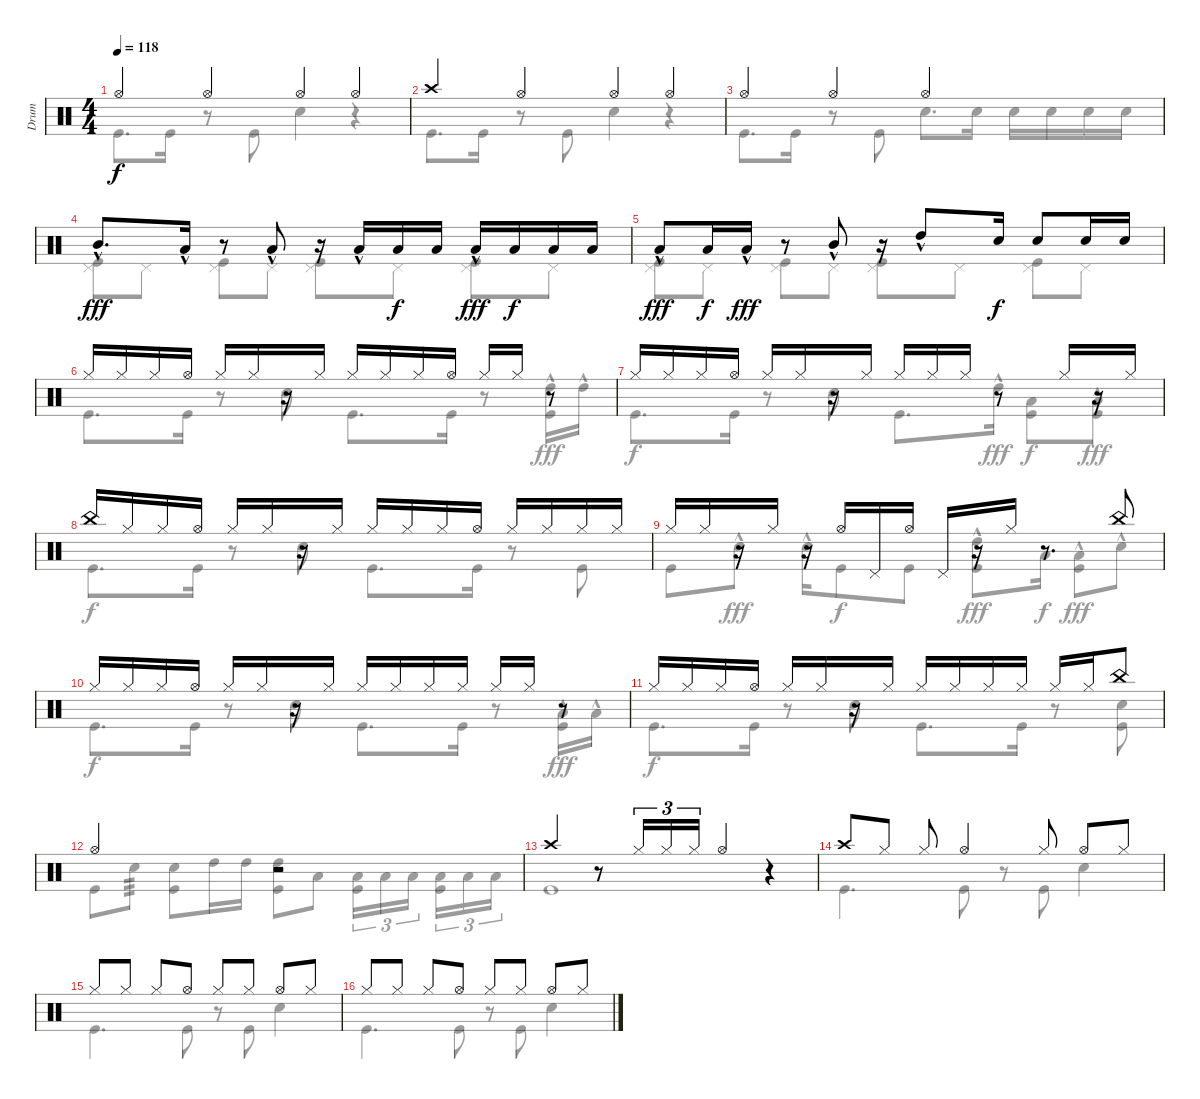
\track ("Drum" "Drum") {instrument percussion}
\staff {score}
\articulation defaults
\voice
\ts (4 4)
\tempo 118
\clef neutral
\ks c "Hi-Hat (open)".4{dy f} "Hi-Hat (open)".4 "Hi-Hat (open)".4 "Hi-Hat (open)".4
|
"Crash high (hit)".4 "Hi-Hat (open)".4 "Hi-Hat (open)".4 "Hi-Hat (open)".4 |
"Hi-Hat (open)".4 "Hi-Hat (open)".4 "Hi-Hat (open)".2 |
"Mid Tom (hit)"{hac}.8{d dy fff} "Low Tom (hit)"{hac}.16 r.8 "Low Floor Tom (hit)"{hac}.8 r.16 "Low Floor Tom (hit)"{hac}.16 "Low Floor Tom (hit)".16{dy f} "Low Floor Tom (hit)".16 "Low Floor Tom (hit)"{hac}.16{dy fff} "Low Floor Tom (hit)".16{dy f} "Low Floor Tom (hit)".16 "Low Floor Tom (hit)".16 |
"Low Floor Tom (hit)"{hac}.8{dy fff} "Low Floor Tom (hit)".16{dy f} "Low Tom (hit)"{hac}.16{dy fff} r.8 "Mid Tom (hit)"{hac}.8 r.16 "High Tom (hit)"{hac}.8 "Snare (hit) 2".16{dy f} "Snare (hit) 2".8 "Snare (hit) 2".16 "Snare (hit) 2".16 |
"Hi-Hat (closed)".16 "Hi-Hat (closed)".16 "Hi-Hat (closed)".16 "Hi-Hat (open)".16 "Hi-Hat (closed)".16 "Hi-Hat (closed)".16 r.16 "Hi-Hat (closed)".16 "Hi-Hat (closed)".16 "Hi-Hat (closed)".16 "Hi-Hat (closed)".16 "Hi-Hat (open)".16 "Hi-Hat (closed)".16 "Hi-Hat (closed)".16 r.8 |
"Hi-Hat (closed)".16 "Hi-Hat (closed)".16 "Hi-Hat (closed)".16 "Hi-Hat (open)".16 "Hi-Hat (closed)".16 "Hi-Hat (closed)".16 r.16 "Hi-Hat (closed)".16 "Hi-Hat (closed)".16 "Hi-Hat (closed)".16 "Hi-Hat (closed)".16 r.8 "Hi-Hat (closed)".16 r.16 "Hi-Hat (closed)".16 |
"China (hit)".16 "Hi-Hat (closed)".16 "Hi-Hat (closed)".16 "Hi-Hat (open)".16 "Hi-Hat (closed)".16 "Hi-Hat (closed)".16 r.16 "Hi-Hat (closed)".16 "Hi-Hat (closed)".16 "Hi-Hat (closed)".16 "Hi-Hat (closed)".16 "Hi-Hat (open)".16 "Hi-Hat (closed)".16 "Hi-Hat (closed)".16 "Hi-Hat (closed)".16 "Hi-Hat (closed)".16 |
"Hi-Hat (closed)".16 "Hi-Hat (closed)".16 r.16 "Hi-Hat (closed)".16 r.16 "Hi-Hat (open)".16 "Pedal Hi-Hat (hit)".16 "Hi-Hat (open)".16 "Pedal Hi-Hat (hit)".16 r.16 "Hi-Hat (closed)".16 r.8{d} "China (hit)".8 |
"Hi-Hat (closed)".16 "Hi-Hat (closed)".16 "Hi-Hat (closed)".16 "Hi-Hat (open)".16 "Hi-Hat (closed)".16 "Hi-Hat (closed)".16 r.16 "Hi-Hat (closed)".16 "Hi-Hat (closed)".16 "Hi-Hat (closed)".16 "Hi-Hat (closed)".16 "Hi-Hat (closed)".16 "Hi-Hat (closed)".16 "Hi-Hat (closed)".16 r.8 |
"Hi-Hat (closed)".16 "Hi-Hat (closed)".16 "Hi-Hat (closed)".16 "Hi-Hat (open)".16 "Hi-Hat (closed)".16 "Hi-Hat (closed)".16 r.16 "Hi-Hat (closed)".16 "Hi-Hat (closed)".16 "Hi-Hat (closed)".16 "Hi-Hat (closed)".16 "Hi-Hat (closed)".16 "Hi-Hat (closed)".16 "Hi-Hat (closed)".16 "China (hit)".8 |
"Hi-Hat (open)".2 r.2 |
"Crash high (hit)".4 r.8 "Hi-Hat (closed)".16{tu (3 2)} "Hi-Hat (closed)".16{tu (3 2)} "Hi-Hat (closed)".16{tu (3 2)} "Hi-Hat (open)".4 r.4 |
"Crash high (hit)".8 "Hi-Hat (closed)".8 "Hi-Hat (closed)".8 "Hi-Hat (open)".4 "Hi-Hat (closed)".8 "Hi-Hat (open)".8 "Hi-Hat (closed)".8 |
"Hi-Hat (closed)".8 "Hi-Hat (closed)".8 "Hi-Hat (closed)".8 "Hi-Hat (open)".8 "Hi-Hat (closed)".8 "Hi-Hat (closed)".8 "Hi-Hat (open)".8 "Hi-Hat (closed)".8 |
"Hi-Hat (closed)".8 "Hi-Hat (closed)".8 "Hi-Hat (closed)".8 "Hi-Hat (open)".8 "Hi-Hat (closed)".8 "Hi-Hat (closed)".8 "Hi-Hat (open)".8 "Hi-Hat (closed)".8
\voice
\clef neutral
\ottava regular
\simile none
\ks c "Kick (hit)".8{d dy f} "Kick (hit)".16
r.8 "Kick (hit)".8 "Snare (hit) 2".4 r.4 |
"Kick (hit)".8{d} "Kick (hit)".16 r.8 "Kick (hit)".8 "Snare (hit) 2".4 r.4 |
"Kick (hit)".8{d} "Kick (hit)".16 r.8 "Kick (hit)".8 "Snare (hit) 2".8{d} "Snare (hit) 2".16 "Snare (hit) 2".16 "Snare (hit) 2".16 "Snare (hit) 2".16 "Snare (hit) 2".16 |
("Kick (hit)" "Pedal Hi-Hat (hit)").8 "Pedal Hi-Hat (hit)".8 ("Kick (hit)" "Pedal Hi-Hat (hit)").8 "Pedal Hi-Hat (hit)".8 ("Kick (hit)" "Pedal Hi-Hat (hit)").8 "Pedal Hi-Hat (hit)".8 ("Kick (hit)" "Pedal Hi-Hat (hit)").8 "Pedal Hi-Hat (hit)".8 |
("Kick (hit)" "Pedal Hi-Hat (hit)").8 "Pedal Hi-Hat (hit)".8 ("Kick (hit)" "Pedal Hi-Hat (hit)").8 "Pedal Hi-Hat (hit)".8 ("Kick (hit)" "Pedal Hi-Hat (hit)").8 "Pedal Hi-Hat (hit)".8 ("Kick (hit)" "Pedal Hi-Hat (hit)").8 "Pedal Hi-Hat (hit)".8 |
"Kick (hit)".8{d} "Kick (hit)".16 r.8 "Snare (hit) 2".8 "Kick (hit)".8{d} "Kick (hit)".16 r.8 ("High Tom (hit)"{hac} "Kick (hit)").16{dy fff} "High Tom (hit)"{hac}.16 |
"Kick (hit)".8{d dy f} "Kick (hit)".16 r.8 "Snare (hit) 2".8 "Kick (hit)".8{d} "High Tom (hit)"{hac}.16{dy fff} ("Low Tom (hit)" "Kick (hit)").8{dy f} ("Kick (hit)" "Low Floor Tom (hit)"{hac}).8{dy fff} |
"Kick (hit)".8{d dy f} "Kick (hit)".16 r.8 "Snare (hit) 2".8 "Kick (hit)".8{d} "Kick (hit)".16 r.8 "Kick (hit)".8 |
"Kick (hit)".8 "Snare (hit) 2"{hac}.8{dy fff} "Snare (hit) 2"{hac}.16 "Kick (hit)".8{dy f} "Kick (hit)".8 ("High Tom (hit)"{hac} "Kick (hit)").8{dy fff} "Low Tom (hit)".16{dy f} ("Low Floor Tom (hit)"{hac} "Kick (hit)").8{dy fff} "Snare (hit) 2"{hac}.8 |
"Kick (hit)".8{d dy f} "Kick (hit)".16 r.8 "Snare (hit) 2".8 "Kick (hit)".8{d} "Kick (hit)".16 r.8 ("Kick (hit)" "Low Tom (hit)"{hac}).16{dy fff} "Low Tom (hit)"{hac}.16 |
"Kick (hit)".8{d dy f} "Kick (hit)".16 r.8 "Snare (hit) 2".8 "Kick (hit)".8{d} "Kick (hit)".16 r.8 ("Snare (hit) 2" "Kick (hit)").8 |
"Kick (hit)".8 "Snare (hit) 2".8{tp 3} ("Snare (hit) 2" "Kick (hit)").8 "High Tom (hit)".16 "High Tom (hit)".16 ("High Tom (hit)" "Kick (hit)").8 "Low Tom (hit)".8 ("Low Tom (hit)" "Kick (hit)").16{tu (3 2)} "Low Tom (hit)".16{tu (3 2)} "Low Tom (hit)".16{tu (3 2) beam splitsecondary} ("Low Floor Tom (hit)" "Kick (hit)").16{tu (3 2)} "Low Floor Tom (hit)".16{tu (3 2)} "Low Floor Tom (hit)".16{tu (3 2)} |
"Kick (hit)".1 |
"Kick (hit)".4{d} "Kick (hit)".8 r.8 "Kick (hit)".8 "Snare (hit) 2".4 |
"Kick (hit)".4{d} "Kick (hit)".8 r.8 "Kick (hit)".8 "Snare (hit) 2".4 |
"Kick (hit)".4{d} "Kick (hit)".8 r.8 "Kick (hit)".8 "Snare (hit) 2".4
